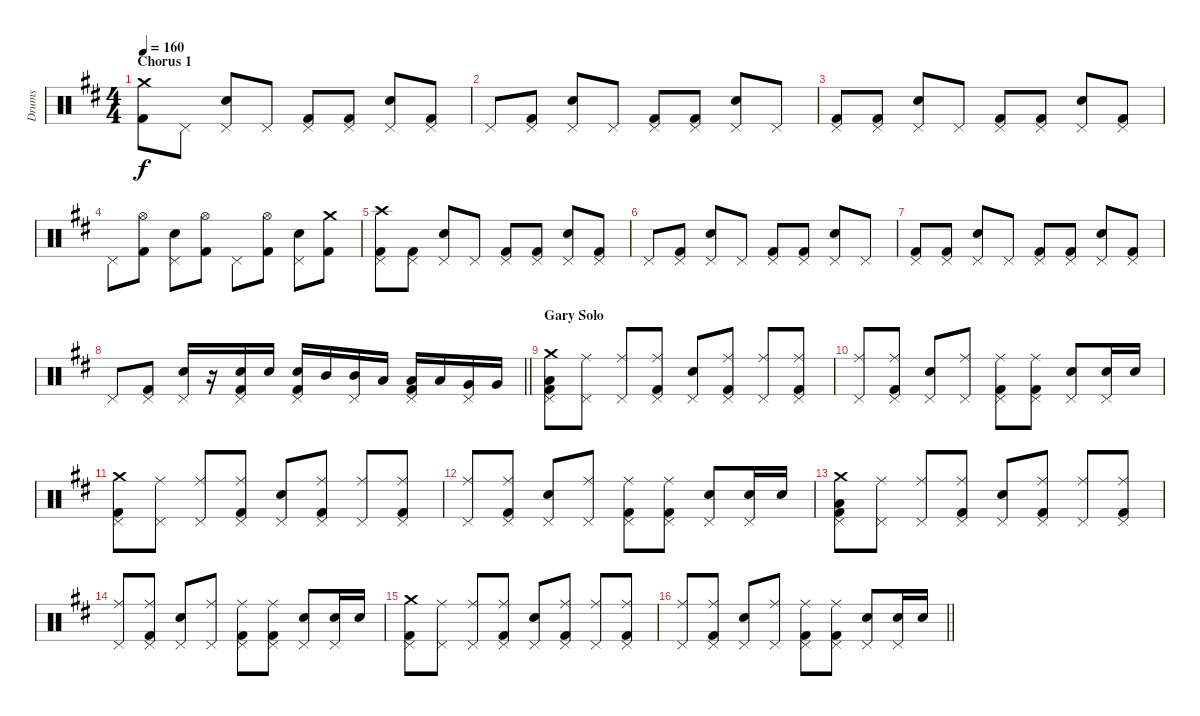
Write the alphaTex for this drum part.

\track ("Drums" "Drums") {instrument percussion}
\staff {score}
\articulation defaults
\ts (4 4)
\section ("" "Chorus 1")
\tempo 160
\clef neutral
\ks d
("Crash medium (hit)" "Kick (hit) 2").8{dy f} "Pedal Hi-Hat (hit)".8 ("Pedal Hi-Hat (hit)" "Electric Snare (hit)").8 "Pedal Hi-Hat (hit)".8 ("Pedal Hi-Hat (hit)" "Kick (hit) 2").8 ("Pedal Hi-Hat (hit)" "Kick (hit) 2").8 ("Pedal Hi-Hat (hit)" "Electric Snare (hit)").8 ("Pedal Hi-Hat (hit)" "Kick (hit) 2").8 |
"Pedal Hi-Hat (hit)".8 ("Pedal Hi-Hat (hit)" "Kick (hit) 2").8 ("Pedal Hi-Hat (hit)" "Electric Snare (hit)").8 "Pedal Hi-Hat (hit)".8 ("Pedal Hi-Hat (hit)" "Kick (hit) 2").8 ("Pedal Hi-Hat (hit)" "Kick (hit) 2").8 ("Pedal Hi-Hat (hit)" "Electric Snare (hit)").8 "Pedal Hi-Hat (hit)".8 |
("Pedal Hi-Hat (hit)" "Kick (hit) 2").8 ("Pedal Hi-Hat (hit)" "Kick (hit) 2").8 ("Pedal Hi-Hat (hit)" "Electric Snare (hit)").8 "Pedal Hi-Hat (hit)".8 ("Pedal Hi-Hat (hit)" "Kick (hit) 2").8 ("Pedal Hi-Hat (hit)" "Kick (hit) 2").8 ("Pedal Hi-Hat (hit)" "Electric Snare (hit)").8 ("Pedal Hi-Hat (hit)" "Kick (hit) 2").8 |
"Pedal Hi-Hat (hit)".8 ("Hi-Hat (open)" "Kick (hit) 2").8 ("Pedal Hi-Hat (hit)" "Electric Snare (hit)").8 ("Hi-Hat (open)" "Kick (hit) 2").8 "Pedal Hi-Hat (hit)".8 ("Hi-Hat (open)" "Kick (hit) 2").8 ("Pedal Hi-Hat (hit)" "Electric Snare (hit)").8 ("Crash medium (hit)" "Kick (hit) 2").8 |
("Crash high (hit)" "Pedal Hi-Hat (hit)" "Kick (hit) 2").8 ("Pedal Hi-Hat (hit)" "Kick (hit) 2").8 ("Pedal Hi-Hat (hit)" "Electric Snare (hit)").8 "Pedal Hi-Hat (hit)".8 ("Pedal Hi-Hat (hit)" "Kick (hit) 2").8 ("Pedal Hi-Hat (hit)" "Kick (hit) 2").8 ("Pedal Hi-Hat (hit)" "Electric Snare (hit)").8 ("Pedal Hi-Hat (hit)" "Kick (hit) 2").8 |
"Pedal Hi-Hat (hit)".8 ("Pedal Hi-Hat (hit)" "Kick (hit) 2").8 ("Pedal Hi-Hat (hit)" "Electric Snare (hit)").8 "Pedal Hi-Hat (hit)".8 ("Pedal Hi-Hat (hit)" "Kick (hit) 2").8 ("Pedal Hi-Hat (hit)" "Kick (hit) 2").8 ("Pedal Hi-Hat (hit)" "Electric Snare (hit)").8 "Pedal Hi-Hat (hit)".8 |
("Pedal Hi-Hat (hit)" "Kick (hit) 2").8 ("Pedal Hi-Hat (hit)" "Kick (hit) 2").8 ("Pedal Hi-Hat (hit)" "Electric Snare (hit)").8 "Pedal Hi-Hat (hit)".8 ("Pedal Hi-Hat (hit)" "Kick (hit) 2").8 ("Pedal Hi-Hat (hit)" "Kick (hit) 2").8 ("Pedal Hi-Hat (hit)" "Electric Snare (hit)").8 ("Pedal Hi-Hat (hit)" "Kick (hit) 2").8 |
\barLineRight lightlight "Pedal Hi-Hat (hit)".8
("Pedal Hi-Hat (hit)" "Kick (hit) 2").8 ("Pedal Hi-Hat (hit)" "Electric Snare (hit)").16 r.16 ("Pedal Hi-Hat (hit)" "Electric Snare (hit)" "Kick (hit) 2").16 "Electric Snare (hit)".16 ("Pedal Hi-Hat (hit)" "Electric Snare (hit)" "Kick (hit) 2").16 "Mid Tom (hit)".16 ("Pedal Hi-Hat (hit)" "Mid Tom (hit)").16 "Low Tom (hit)".16 ("Pedal Hi-Hat (hit)" "Low Tom (hit)" "Kick (hit) 2").16 "Low Tom (hit)".16 ("Pedal Hi-Hat (hit)" "Very Low Tom (hit)").16 "Very Low Tom (hit)".16 |
\section ("" "Gary Solo")
("Crash medium (hit)" "Pedal Hi-Hat (hit)" "Low Floor Tom (hit)" "Kick (hit) 2").8 ("Ride (middle)" "Pedal Hi-Hat (hit)").8 ("Ride (middle)" "Pedal Hi-Hat (hit)").8 ("Ride (middle)" "Pedal Hi-Hat (hit)" "Kick (hit) 2").8 ("Electric Snare (hit)" "Pedal Hi-Hat (hit)").8 ("Ride (middle)" "Pedal Hi-Hat (hit)" "Kick (hit) 2").8 ("Ride (middle)" "Pedal Hi-Hat (hit)").8 ("Ride (middle)" "Pedal Hi-Hat (hit)" "Kick (hit) 2").8 |
("Ride (middle)" "Pedal Hi-Hat (hit)").8 ("Ride (middle)" "Pedal Hi-Hat (hit)" "Kick (hit) 2").8 ("Electric Snare (hit)" "Pedal Hi-Hat (hit)").8 ("Ride (middle)" "Pedal Hi-Hat (hit)").8 ("Ride (middle)" "Pedal Hi-Hat (hit)" "Kick (hit) 2").8 ("Ride (middle)" "Pedal Hi-Hat (hit)" "Kick (hit) 2").8 ("Electric Snare (hit)" "Pedal Hi-Hat (hit)").8 ("Snare (hit) 2" "Pedal Hi-Hat (hit)").16 "Snare (hit) 2".16 |
("Crash medium (hit)" "Pedal Hi-Hat (hit)" "Kick (hit) 2").8 ("Ride (middle)" "Pedal Hi-Hat (hit)").8 ("Ride (middle)" "Pedal Hi-Hat (hit)").8 ("Ride (middle)" "Pedal Hi-Hat (hit)" "Kick (hit) 2").8 ("Electric Snare (hit)" "Pedal Hi-Hat (hit)").8 ("Ride (middle)" "Pedal Hi-Hat (hit)" "Kick (hit) 2").8 ("Ride (middle)" "Pedal Hi-Hat (hit)").8 ("Ride (middle)" "Pedal Hi-Hat (hit)" "Kick (hit) 2").8 |
("Ride (middle)" "Pedal Hi-Hat (hit)").8 ("Ride (middle)" "Pedal Hi-Hat (hit)" "Kick (hit) 2").8 ("Electric Snare (hit)" "Pedal Hi-Hat (hit)").8 ("Ride (middle)" "Pedal Hi-Hat (hit)").8 ("Ride (middle)" "Pedal Hi-Hat (hit)" "Kick (hit) 2").8 ("Ride (middle)" "Pedal Hi-Hat (hit)" "Kick (hit) 2").8 ("Electric Snare (hit)" "Pedal Hi-Hat (hit)").8 ("Snare (hit) 2" "Pedal Hi-Hat (hit)").16 "Snare (hit) 2".16 |
("Crash medium (hit)" "Pedal Hi-Hat (hit)" "Low Floor Tom (hit)" "Kick (hit) 2").8 ("Ride (middle)" "Pedal Hi-Hat (hit)").8 ("Ride (middle)" "Pedal Hi-Hat (hit)").8 ("Ride (middle)" "Pedal Hi-Hat (hit)" "Kick (hit) 2").8 ("Electric Snare (hit)" "Pedal Hi-Hat (hit)").8 ("Ride (middle)" "Pedal Hi-Hat (hit)" "Kick (hit) 2").8 ("Ride (middle)" "Pedal Hi-Hat (hit)").8 ("Ride (middle)" "Pedal Hi-Hat (hit)" "Kick (hit) 2").8 |
("Ride (middle)" "Pedal Hi-Hat (hit)").8 ("Ride (middle)" "Pedal Hi-Hat (hit)" "Kick (hit) 2").8 ("Electric Snare (hit)" "Pedal Hi-Hat (hit)").8 ("Ride (middle)" "Pedal Hi-Hat (hit)").8 ("Ride (middle)" "Pedal Hi-Hat (hit)" "Kick (hit) 2").8 ("Ride (middle)" "Pedal Hi-Hat (hit)" "Kick (hit) 2").8 ("Electric Snare (hit)" "Pedal Hi-Hat (hit)").8 ("Snare (hit) 2" "Pedal Hi-Hat (hit)").16 "Snare (hit) 2".16 |
("Crash medium (hit)" "Pedal Hi-Hat (hit)" "Kick (hit) 2").8 ("Ride (middle)" "Pedal Hi-Hat (hit)").8 ("Ride (middle)" "Pedal Hi-Hat (hit)").8 ("Ride (middle)" "Pedal Hi-Hat (hit)" "Kick (hit) 2").8 ("Electric Snare (hit)" "Pedal Hi-Hat (hit)").8 ("Ride (middle)" "Pedal Hi-Hat (hit)" "Kick (hit) 2").8 ("Ride (middle)" "Pedal Hi-Hat (hit)").8 ("Ride (middle)" "Pedal Hi-Hat (hit)" "Kick (hit) 2").8 |
\barLineRight lightlight
("Ride (middle)" "Pedal Hi-Hat (hit)").8 ("Ride (middle)" "Pedal Hi-Hat (hit)" "Kick (hit) 2").8 ("Electric Snare (hit)" "Pedal Hi-Hat (hit)").8 ("Ride (middle)" "Pedal Hi-Hat (hit)").8 ("Ride (middle)" "Pedal Hi-Hat (hit)" "Kick (hit) 2").8 ("Ride (middle)" "Pedal Hi-Hat (hit)" "Kick (hit) 2").8 ("Electric Snare (hit)" "Pedal Hi-Hat (hit)").8 ("Snare (hit) 2" "Pedal Hi-Hat (hit)").16 "Snare (hit) 2".16
